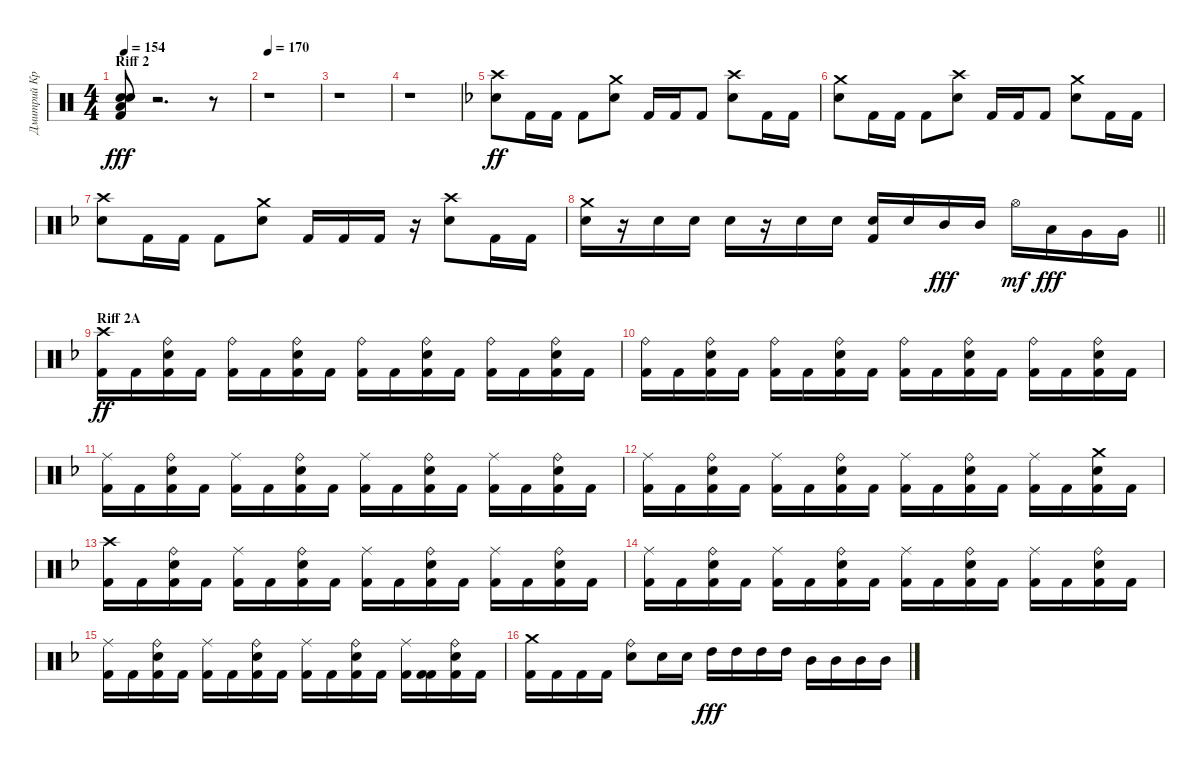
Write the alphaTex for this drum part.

\track ("Дмитрий Кривенков" "Дмитрий Кр") {instrument percussion}
\staff {score}
\articulation defaults
\ts (4 4)
\section ("" "Riff 2")
\tempo 154
\clef neutral
\ks c
("Kick (hit) 2" "Electric Snare (hit)" "Electric Snare (hit)" "Low Floor Tom (hit)").8{dy fff} r.2{d} r.8 |
\tempo 170
r.1 |
r.1 |
r.1 |
\ks f
("Electric Snare (hit)" "Crash high (hit)").8{dy ff} "Kick (hit) 2".16 "Kick (hit) 2".16 "Kick (hit) 2".8 ("Electric Snare (hit)" "Crash medium (hit)").8 "Kick (hit) 2".16 "Kick (hit) 2".16 "Kick (hit) 2".8 ("Crash high (hit)" "Electric Snare (hit)").8 "Kick (hit) 2".16 "Kick (hit) 2".16 |
("Electric Snare (hit)" "Crash medium (hit)").8 "Kick (hit) 2".16 "Kick (hit) 2".16 "Kick (hit) 2".8 ("Electric Snare (hit)" "Crash high (hit)").8 "Kick (hit) 2".16 "Kick (hit) 2".16 "Kick (hit) 2".8 ("Electric Snare (hit)" "Crash medium (hit)").8 "Kick (hit) 2".16 "Kick (hit) 2".16 |
("Crash high (hit)" "Electric Snare (hit)").8 "Kick (hit) 2".16 "Kick (hit) 2".16 "Kick (hit) 2".8 ("Electric Snare (hit)" "Crash medium (hit)").8 "Kick (hit) 2".16 "Kick (hit) 2".16 "Kick (hit) 2".16 r.16 ("Electric Snare (hit)" "Crash high (hit)").8 "Kick (hit) 2".16 "Kick (hit) 2".16 |
\barLineRight lightlight
("Electric Snare (hit)" "Crash medium (hit)").16 r.16 "Electric Snare (hit)".16 "Electric Snare (hit)".16 "Electric Snare (hit)".16 r.16 "Electric Snare (hit)".16 "Electric Snare (hit)".16 ("Electric Snare (hit)" "Kick (hit) 2").16 "Electric Snare (hit)".16 "Mid Tom (hit)".16{dy fff} "Mid Tom (hit)".16 "Hi-Hat (open)".16{dy mf} "Low Tom (hit)".16{dy fff} "Very Low Tom (hit)".16 "Very Low Tom (hit)".16 |
\section ("" "Riff 2A")
("Kick (hit) 2" "Crash high (hit)").16{dy ff} "Kick (hit) 2".16 ("Kick (hit) 2" "Electric Snare (hit)" "Ride (bell)").16 "Kick (hit) 2".16 ("Kick (hit) 2" "Ride (bell)").16 "Kick (hit) 2".16 ("Kick (hit) 2" "Electric Snare (hit)" "Ride (bell)").16 "Kick (hit) 2".16 ("Kick (hit) 2" "Ride (bell)").16 "Kick (hit) 2".16 ("Kick (hit) 2" "Electric Snare (hit)" "Ride (bell)").16 "Kick (hit) 2".16 ("Kick (hit) 2" "Ride (bell)").16 "Kick (hit) 2".16 ("Kick (hit) 2" "Electric Snare (hit)" "Ride (bell)").16 "Kick (hit) 2".16 |
("Kick (hit) 2" "Ride (bell)").16 "Kick (hit) 2".16 ("Kick (hit) 2" "Electric Snare (hit)" "Ride (bell)").16 "Kick (hit) 2".16 ("Kick (hit) 2" "Ride (bell)").16 "Kick (hit) 2".16 ("Kick (hit) 2" "Electric Snare (hit)" "Ride (bell)").16 "Kick (hit) 2".16 ("Kick (hit) 2" "Ride (bell)").16 "Kick (hit) 2".16 ("Kick (hit) 2" "Electric Snare (hit)" "Ride (bell)").16 "Kick (hit) 2".16 ("Kick (hit) 2" "Ride (bell)").16 "Kick (hit) 2".16 ("Kick (hit) 2" "Electric Snare (hit)" "Ride (bell)").16 "Kick (hit) 2".16 |
("Kick (hit) 2" "Ride (middle)").16 "Kick (hit) 2".16 ("Kick (hit) 2" "Electric Snare (hit)" "Ride (bell)").16 "Kick (hit) 2".16 ("Kick (hit) 2" "Ride (middle)").16 "Kick (hit) 2".16 ("Kick (hit) 2" "Electric Snare (hit)" "Ride (bell)").16 "Kick (hit) 2".16 ("Kick (hit) 2" "Ride (middle)").16 "Kick (hit) 2".16 ("Kick (hit) 2" "Electric Snare (hit)" "Ride (bell)").16 "Kick (hit) 2".16 ("Kick (hit) 2" "Ride (middle)").16 "Kick (hit) 2".16 ("Kick (hit) 2" "Electric Snare (hit)" "Ride (bell)").16 "Kick (hit) 2".16 |
("Kick (hit) 2" "Ride (middle)").16 "Kick (hit) 2".16 ("Kick (hit) 2" "Electric Snare (hit)" "Ride (bell)").16 "Kick (hit) 2".16 ("Kick (hit) 2" "Ride (middle)").16 "Kick (hit) 2".16 ("Kick (hit) 2" "Electric Snare (hit)" "Ride (bell)").16 "Kick (hit) 2".16 ("Kick (hit) 2" "Ride (middle)").16 "Kick (hit) 2".16 ("Kick (hit) 2" "Electric Snare (hit)" "Ride (bell)").16 "Kick (hit) 2".16 ("Kick (hit) 2" "Ride (middle)").16 "Kick (hit) 2".16 ("Kick (hit) 2" "Electric Snare (hit)" "Crash medium (hit)").16 "Kick (hit) 2".16 |
("Kick (hit) 2" "Crash high (hit)").16 "Kick (hit) 2".16 ("Kick (hit) 2" "Electric Snare (hit)" "Ride (bell)").16 "Kick (hit) 2".16 ("Kick (hit) 2" "Ride (middle)").16 "Kick (hit) 2".16 ("Kick (hit) 2" "Electric Snare (hit)" "Ride (bell)").16 "Kick (hit) 2".16 ("Kick (hit) 2" "Ride (middle)").16 "Kick (hit) 2".16 ("Kick (hit) 2" "Electric Snare (hit)" "Ride (bell)").16 "Kick (hit) 2".16 ("Kick (hit) 2" "Ride (middle)").16 "Kick (hit) 2".16 ("Kick (hit) 2" "Electric Snare (hit)" "Ride (bell)").16 "Kick (hit) 2".16 |
("Kick (hit) 2" "Ride (middle)").16 "Kick (hit) 2".16 ("Kick (hit) 2" "Electric Snare (hit)" "Ride (bell)").16 "Kick (hit) 2".16 ("Kick (hit) 2" "Ride (middle)").16 "Kick (hit) 2".16 ("Kick (hit) 2" "Electric Snare (hit)" "Ride (bell)").16 "Kick (hit) 2".16 ("Kick (hit) 2" "Ride (middle)").16 "Kick (hit) 2".16 ("Kick (hit) 2" "Electric Snare (hit)" "Ride (bell)").16 "Kick (hit) 2".16 ("Kick (hit) 2" "Ride (middle)").16 "Kick (hit) 2".16 ("Kick (hit) 2" "Electric Snare (hit)" "Ride (bell)").16 "Kick (hit) 2".16 |
("Kick (hit) 2" "Ride (middle)").16 "Kick (hit) 2".16 ("Kick (hit) 2" "Electric Snare (hit)" "Ride (bell)").16 "Kick (hit) 2".16 ("Kick (hit) 2" "Ride (middle)").16 "Kick (hit) 2".16 ("Kick (hit) 2" "Electric Snare (hit)" "Ride (bell)").16 "Kick (hit) 2".16 ("Kick (hit) 2" "Ride (middle)").16 "Kick (hit) 2".16 ("Kick (hit) 2" "Electric Snare (hit)" "Ride (bell)").16 "Kick (hit) 2".16 ("Kick (hit) 2" "Ride (middle)").16 ("Kick (hit) 2" "Kick (hit) 2").16 ("Kick (hit) 2" "Electric Snare (hit)" "Ride (bell)").16 "Kick (hit) 2".16 |
("Kick (hit) 2" "Crash medium (hit)").16 "Kick (hit) 2".16 "Kick (hit) 2".16 "Kick (hit) 2".16 ("Ride (bell)" "Electric Snare (hit)").8 "Electric Snare (hit)".16 "Electric Snare (hit)".16 "High Tom (hit)".16{dy fff} "High Tom (hit)".16 "High Tom (hit)".16 "High Tom (hit)".16 "Mid Tom (hit)".16 "Mid Tom (hit)".16 "Mid Tom (hit)".16 "Mid Tom (hit)".16
